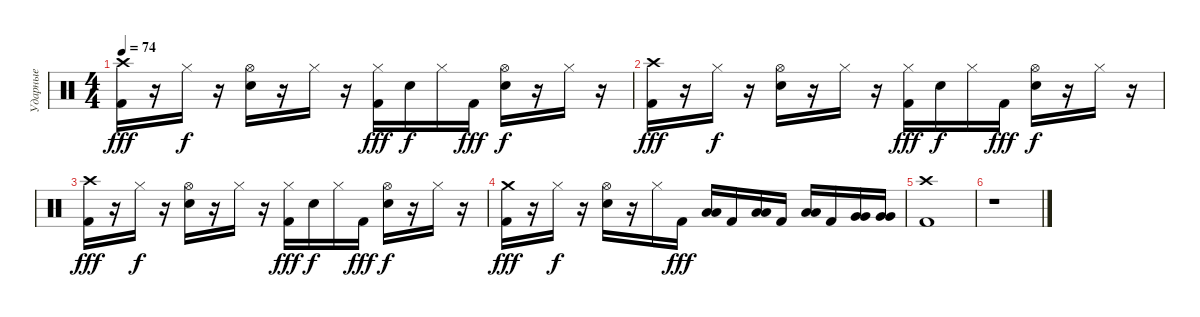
\track ("Ударные" "Ударные") {instrument percussion}
\staff {score}
\articulation defaults
\ts (4 4)
\tempo 74
\clef neutral
\ks c
("Crash high (hit)" "Kick (hit) 2").16{dy fff} r.16 "Hi-Hat (closed)".16{dy f} r.16 ("Hi-Hat (open)" "Electric Snare (hit)").16 r.16 "Hi-Hat (closed)".16 r.16 ("Hi-Hat (closed)" "Kick (hit) 2").16{dy fff} "Electric Snare (hit)".16{dy f} "Hi-Hat (closed)".16 "Kick (hit) 2".16{dy fff} ("Hi-Hat (open)" "Electric Snare (hit)").16{dy f} r.16 "Hi-Hat (closed)".16 r.16 |
("Crash high (hit)" "Kick (hit) 2").16{dy fff} r.16 "Hi-Hat (closed)".16{dy f} r.16 ("Hi-Hat (open)" "Electric Snare (hit)").16 r.16 "Hi-Hat (closed)".16 r.16 ("Hi-Hat (closed)" "Kick (hit) 2").16{dy fff} "Electric Snare (hit)".16{dy f} "Hi-Hat (closed)".16 "Kick (hit) 2".16{dy fff} ("Hi-Hat (open)" "Electric Snare (hit)").16{dy f} r.16 "Hi-Hat (closed)".16 r.16 |
("Crash high (hit)" "Kick (hit) 2").16{dy fff} r.16 "Hi-Hat (closed)".16{dy f} r.16 ("Hi-Hat (open)" "Electric Snare (hit)").16 r.16 "Hi-Hat (closed)".16 r.16 ("Hi-Hat (closed)" "Kick (hit) 2").16{dy fff} "Electric Snare (hit)".16{dy f} "Hi-Hat (closed)".16 "Kick (hit) 2".16{dy fff} ("Hi-Hat (open)" "Electric Snare (hit)").16{dy f} r.16 "Hi-Hat (closed)".16 r.16 |
("Crash medium (hit)" "Kick (hit) 2").16{dy fff} r.16 "Hi-Hat (closed)".16{dy f} r.16 ("Hi-Hat (open)" "Electric Snare (hit)").16 r.16 "Hi-Hat (closed)".16 "Kick (hit) 2".16{dy fff} ("Low Tom (hit)" "Low Tom (hit)").16 "Kick (hit) 2".16 ("Low Floor Tom (hit)" "Low Floor Tom (hit)").16 "Kick (hit) 2".16 ("Low Tom (hit)" "Low Tom (hit)").16 "Kick (hit) 2".16 ("Very Low Tom (hit)" "Very Low Tom (hit)").16 ("Very Low Tom (hit)" "Very Low Tom (hit)").16 |
("Crash high (hit)" "Kick (hit) 2").1 |
r.1
